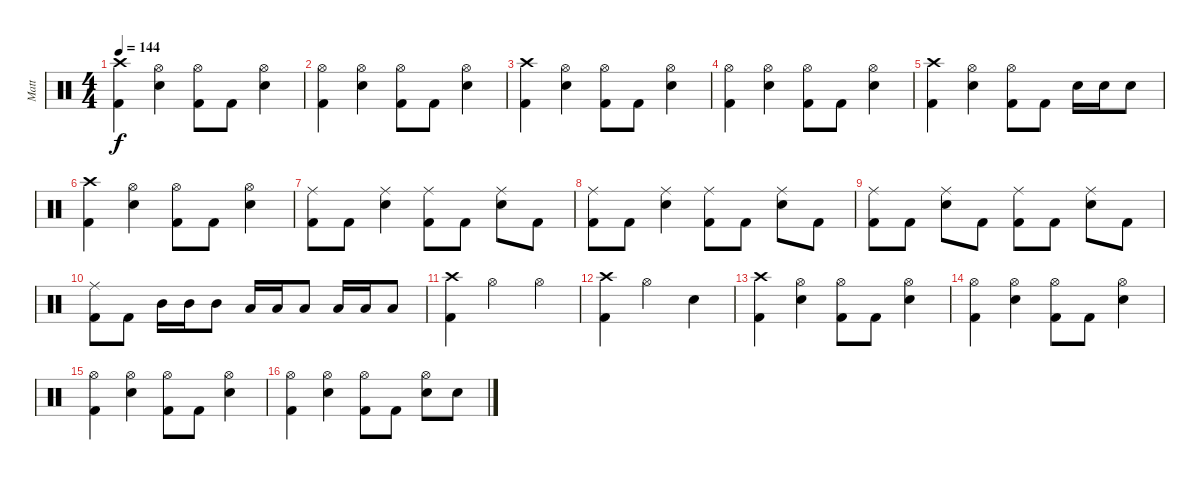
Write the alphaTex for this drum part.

\track ("Matt" "Matt") {instrument percussion}
\staff {score}
\articulation defaults
\ts (4 4)
\tempo 144
\clef neutral
\ks c
("Crash high (hit)" "Kick (hit) 2").4{dy f} ("Hi-Hat (open)" "Electric Snare (hit)").4 ("Hi-Hat (open)" "Kick (hit) 2").8 "Kick (hit) 2".8 ("Hi-Hat (open)" "Electric Snare (hit)").4 |
("Hi-Hat (open)" "Kick (hit) 2").4 ("Hi-Hat (open)" "Electric Snare (hit)").4 ("Hi-Hat (open)" "Kick (hit) 2").8 "Kick (hit) 2".8 ("Hi-Hat (open)" "Electric Snare (hit)").4 |
("Crash high (hit)" "Kick (hit) 2").4 ("Hi-Hat (open)" "Electric Snare (hit)").4 ("Hi-Hat (open)" "Kick (hit) 2").8 "Kick (hit) 2".8 ("Hi-Hat (open)" "Electric Snare (hit)").4 |
("Hi-Hat (open)" "Kick (hit) 2").4 ("Hi-Hat (open)" "Electric Snare (hit)").4 ("Hi-Hat (open)" "Kick (hit) 2").8 "Kick (hit) 2".8 ("Hi-Hat (open)" "Electric Snare (hit)").4 |
("Crash high (hit)" "Kick (hit) 2").4 ("Hi-Hat (open)" "Electric Snare (hit)").4 ("Hi-Hat (open)" "Kick (hit) 2").8 "Kick (hit) 2".8 "Electric Snare (hit)".16 "Electric Snare (hit)".16 "Electric Snare (hit)".8 |
("Crash high (hit)" "Kick (hit) 2").4 ("Hi-Hat (open)" "Electric Snare (hit)").4 ("Hi-Hat (open)" "Kick (hit) 2").8 "Kick (hit) 2".8 ("Hi-Hat (open)" "Electric Snare (hit)").4 |
("Ride (middle)" "Kick (hit) 2").8 "Kick (hit) 2".8 ("Ride (middle)" "Electric Snare (hit)").4 ("Ride (middle)" "Kick (hit) 2").8 "Kick (hit) 2".8 ("Ride (middle)" "Electric Snare (hit)").8 "Kick (hit) 2".8 |
("Ride (middle)" "Kick (hit) 2").8 "Kick (hit) 2".8 ("Ride (middle)" "Electric Snare (hit)").4 ("Ride (middle)" "Kick (hit) 2").8 "Kick (hit) 2".8 ("Ride (middle)" "Electric Snare (hit)").8 "Kick (hit) 2".8 |
("Ride (middle)" "Kick (hit) 2").8 "Kick (hit) 2".8 ("Ride (middle)" "Electric Snare (hit)").8 "Kick (hit) 2".8 ("Ride (middle)" "Kick (hit) 2").8 "Kick (hit) 2".8 ("Ride (middle)" "Electric Snare (hit)").8 "Kick (hit) 2".8 |
("Ride (middle)" "Kick (hit) 2").8 "Kick (hit) 2".8 "Mid Tom (hit)".16 "Mid Tom (hit)".16 "Mid Tom (hit)".8 "Low Tom (hit)".16 "Low Tom (hit)".16 "Low Tom (hit)".8 "Low Floor Tom (hit)".16 "Low Floor Tom (hit)".16 "Low Floor Tom (hit)".8 |
("Crash high (hit)" "Kick (hit) 2").4 "Hi-Hat (open)".2 "Hi-Hat (open)".4 |
("Crash high (hit)" "Kick (hit) 2").4 "Hi-Hat (open)".2 "Electric Snare (hit)".4 |
("Crash high (hit)" "Kick (hit) 2").4 ("Hi-Hat (open)" "Electric Snare (hit)").4 ("Hi-Hat (open)" "Kick (hit) 2").8 "Kick (hit) 2".8 ("Hi-Hat (open)" "Electric Snare (hit)").4 |
("Hi-Hat (open)" "Kick (hit) 2").4 ("Hi-Hat (open)" "Electric Snare (hit)").4 ("Hi-Hat (open)" "Kick (hit) 2").8 "Kick (hit) 2".8 ("Hi-Hat (open)" "Electric Snare (hit)").4 |
("Hi-Hat (open)" "Kick (hit) 2").4 ("Hi-Hat (open)" "Electric Snare (hit)").4 ("Hi-Hat (open)" "Kick (hit) 2").8 "Kick (hit) 2".8 ("Hi-Hat (open)" "Electric Snare (hit)").4 |
("Hi-Hat (open)" "Kick (hit) 2").4 ("Hi-Hat (open)" "Electric Snare (hit)").4 ("Hi-Hat (open)" "Kick (hit) 2").8 "Kick (hit) 2".8 ("Hi-Hat (open)" "Electric Snare (hit)").8 "Electric Snare (hit)".8
